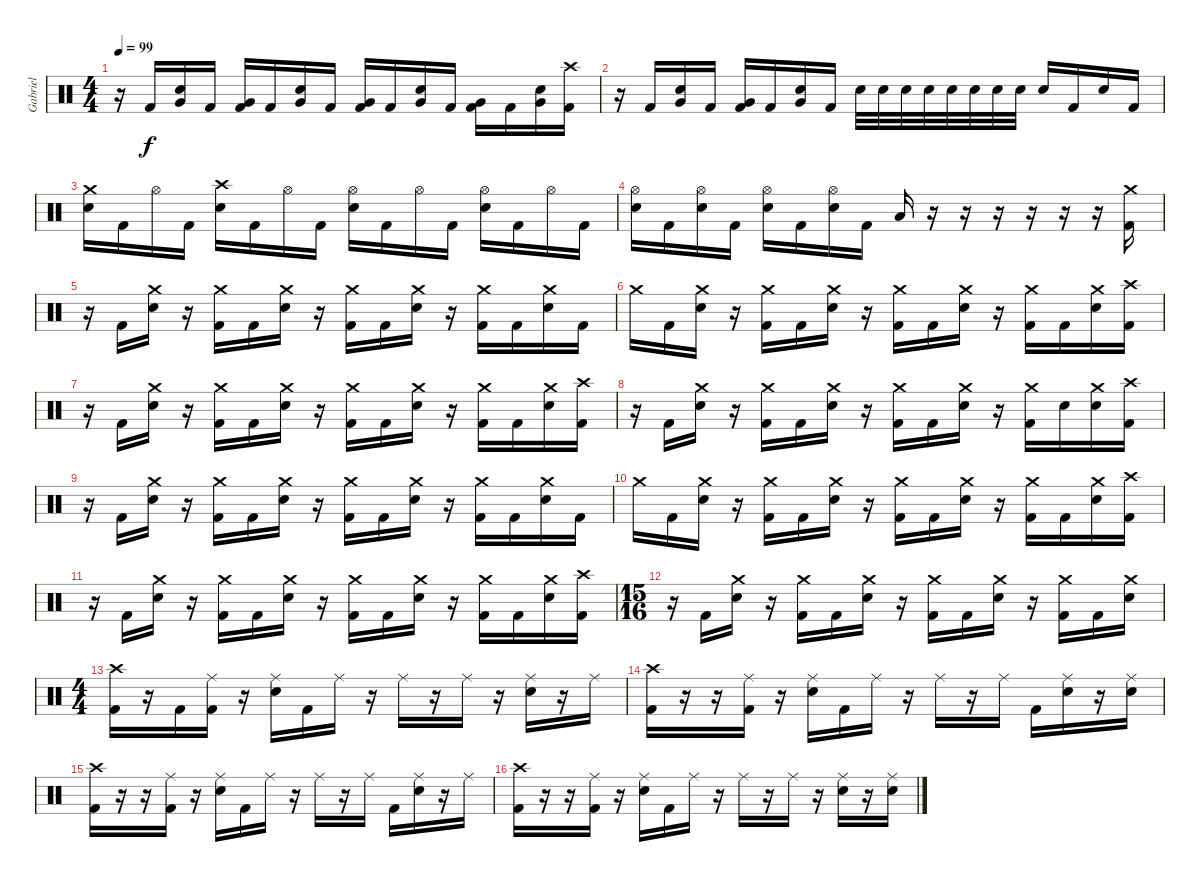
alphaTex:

\track ("Gabriel" "Gabriel") {instrument percussion}
\staff {score}
\articulation defaults
\ts (4 4)
\tempo 99
\clef neutral
\ks c
r.16{dy f} "Kick (hit) 2".16 ("Very Low Tom (hit)" "Electric Snare (hit)").16 "Kick (hit) 2".16 ("Very Low Tom (hit)" "Kick (hit) 2").16 "Kick (hit) 2".16 ("Very Low Tom (hit)" "Electric Snare (hit)").16 "Kick (hit) 2".16 ("Very Low Tom (hit)" "Kick (hit) 2").16 "Kick (hit) 2".16 ("Very Low Tom (hit)" "Electric Snare (hit)").16 "Kick (hit) 2".16 ("Very Low Tom (hit)" "Kick (hit) 2").16 "Kick (hit) 2".16 ("Very Low Tom (hit)" "Electric Snare (hit)").16 ("Crash high (hit)" "Kick (hit) 2").16 |
r.16 "Kick (hit) 2".16 ("Very Low Tom (hit)" "Electric Snare (hit)").16 "Kick (hit) 2".16 ("Very Low Tom (hit)" "Kick (hit) 2").16 "Kick (hit) 2".16 ("Very Low Tom (hit)" "Electric Snare (hit)").16 "Kick (hit) 2".16 "Electric Snare (hit)".32 "Electric Snare (hit)".32 "Electric Snare (hit)".32 "Electric Snare (hit)".32 "Electric Snare (hit)".32 "Electric Snare (hit)".32 "Electric Snare (hit)".32 "Electric Snare (hit)".32 "Electric Snare (hit)".16 "Kick (hit) 2".16 "Electric Snare (hit)".16 "Kick (hit) 2".16 |
("Crash medium (hit)" "Electric Snare (hit)").16 "Kick (hit) 2".16 "Hi-Hat (open)".16 "Kick (hit) 2".16 ("Crash high (hit)" "Electric Snare (hit)").16 "Kick (hit) 2".16 "Hi-Hat (open)".16 "Kick (hit) 2".16 ("Hi-Hat (open)" "Electric Snare (hit)").16 "Kick (hit) 2".16 "Hi-Hat (open)".16 "Kick (hit) 2".16 ("Hi-Hat (open)" "Electric Snare (hit)").16 "Kick (hit) 2".16 "Hi-Hat (open)".16 "Kick (hit) 2".16 |
("Hi-Hat (open)" "Electric Snare (hit)").16 "Kick (hit) 2".16 ("Hi-Hat (open)" "Electric Snare (hit)").16 "Kick (hit) 2".16 ("Hi-Hat (open)" "Electric Snare (hit)").16 "Kick (hit) 2".16 ("Hi-Hat (open)" "Electric Snare (hit)").16 "Kick (hit) 2".16 "Low Tom (hit)".16 r.16 r.16 r.16 r.16 r.16 r.16 ("Crash medium (hit)" "Kick (hit) 2").16 |
r.16 "Kick (hit) 2".16 ("Crash medium (hit)" "Electric Snare (hit)").16 r.16 ("Crash medium (hit)" "Kick (hit) 2").16 "Kick (hit) 2".16 ("Crash medium (hit)" "Electric Snare (hit)").16 r.16 ("Crash medium (hit)" "Kick (hit) 2").16 "Kick (hit) 2".16 ("Crash medium (hit)" "Electric Snare (hit)").16 r.16 ("Crash medium (hit)" "Kick (hit) 2").16 "Kick (hit) 2".16 ("Crash medium (hit)" "Electric Snare (hit)").16 "Kick (hit) 2".16 |
"Crash medium (hit)".16 "Kick (hit) 2".16 ("Crash medium (hit)" "Electric Snare (hit)").16 r.16 ("Crash medium (hit)" "Kick (hit) 2").16 "Kick (hit) 2".16 ("Crash medium (hit)" "Electric Snare (hit)").16 r.16 ("Crash medium (hit)" "Kick (hit) 2").16 "Kick (hit) 2".16 ("Crash medium (hit)" "Electric Snare (hit)").16 r.16 ("Crash medium (hit)" "Kick (hit) 2").16 "Kick (hit) 2".16 ("Crash medium (hit)" "Electric Snare (hit)").16 ("Crash high (hit)" "Kick (hit) 2").16 |
r.16 "Kick (hit) 2".16 ("Crash medium (hit)" "Electric Snare (hit)").16 r.16 ("Crash medium (hit)" "Kick (hit) 2").16 "Kick (hit) 2".16 ("Crash medium (hit)" "Electric Snare (hit)").16 r.16 ("Crash medium (hit)" "Kick (hit) 2").16 "Kick (hit) 2".16 ("Crash medium (hit)" "Electric Snare (hit)").16 r.16 ("Crash medium (hit)" "Kick (hit) 2").16 "Kick (hit) 2".16 ("Crash medium (hit)" "Electric Snare (hit)").16 ("Crash high (hit)" "Kick (hit) 2").16 |
r.16 "Kick (hit) 2".16 ("Crash medium (hit)" "Electric Snare (hit)").16 r.16 ("Crash medium (hit)" "Kick (hit) 2").16 "Kick (hit) 2".16 ("Crash medium (hit)" "Electric Snare (hit)").16 r.16 ("Crash medium (hit)" "Kick (hit) 2").16 "Kick (hit) 2".16 ("Crash medium (hit)" "Electric Snare (hit)").16 r.16 ("Crash medium (hit)" "Kick (hit) 2").16 "Electric Snare (hit)".16 ("Crash medium (hit)" "Electric Snare (hit)").16 ("Crash high (hit)" "Kick (hit) 2").16 |
r.16 "Kick (hit) 2".16 ("Crash medium (hit)" "Electric Snare (hit)").16 r.16 ("Crash medium (hit)" "Kick (hit) 2").16 "Kick (hit) 2".16 ("Crash medium (hit)" "Electric Snare (hit)").16 r.16 ("Crash medium (hit)" "Kick (hit) 2").16 "Kick (hit) 2".16 ("Crash medium (hit)" "Electric Snare (hit)").16 r.16 ("Crash medium (hit)" "Kick (hit) 2").16 "Kick (hit) 2".16 ("Crash medium (hit)" "Electric Snare (hit)").16 "Kick (hit) 2".16 |
"Crash medium (hit)".16 "Kick (hit) 2".16 ("Crash medium (hit)" "Electric Snare (hit)").16 r.16 ("Crash medium (hit)" "Kick (hit) 2").16 "Kick (hit) 2".16 ("Crash medium (hit)" "Electric Snare (hit)").16 r.16 ("Crash medium (hit)" "Kick (hit) 2").16 "Kick (hit) 2".16 ("Crash medium (hit)" "Electric Snare (hit)").16 r.16 ("Crash medium (hit)" "Kick (hit) 2").16 "Kick (hit) 2".16 ("Crash medium (hit)" "Electric Snare (hit)").16 ("Crash high (hit)" "Kick (hit) 2").16 |
r.16 "Kick (hit) 2".16 ("Crash medium (hit)" "Electric Snare (hit)").16 r.16 ("Crash medium (hit)" "Kick (hit) 2").16 "Kick (hit) 2".16 ("Crash medium (hit)" "Electric Snare (hit)").16 r.16 ("Crash medium (hit)" "Kick (hit) 2").16 "Kick (hit) 2".16 ("Crash medium (hit)" "Electric Snare (hit)").16 r.16 ("Crash medium (hit)" "Kick (hit) 2").16 "Kick (hit) 2".16 ("Crash medium (hit)" "Electric Snare (hit)").16 ("Crash high (hit)" "Kick (hit) 2").16 |
\ts (15 16)
r.16 "Kick (hit) 2".16 ("Crash medium (hit)" "Electric Snare (hit)").16 r.16 ("Crash medium (hit)" "Kick (hit) 2").16 "Kick (hit) 2".16 ("Crash medium (hit)" "Electric Snare (hit)").16 r.16 ("Crash medium (hit)" "Kick (hit) 2").16 "Kick (hit) 2".16 ("Crash medium (hit)" "Electric Snare (hit)").16 r.16 ("Crash medium (hit)" "Kick (hit) 2").16 "Kick (hit) 2".16 ("Crash medium (hit)" "Electric Snare (hit)").16 |
\ts (4 4)
("Crash high (hit)" "Kick (hit) 2").16 r.16 "Kick (hit) 2".16 ("Ride (middle)" "Kick (hit) 2").16 r.16 ("Ride (middle)" "Electric Snare (hit)").16 "Kick (hit) 2".16 "Ride (middle)".16 r.16 "Ride (middle)".16 r.16 "Ride (middle)".16 r.16 ("Ride (middle)" "Electric Snare (hit)").16 r.16 "Ride (middle)".16 |
("Crash high (hit)" "Kick (hit) 2").16 r.16 r.16 ("Ride (middle)" "Kick (hit) 2").16 r.16 ("Ride (middle)" "Electric Snare (hit)").16 "Kick (hit) 2".16 "Ride (middle)".16 r.16 "Ride (middle)".16 r.16 "Ride (middle)".16 "Kick (hit) 2".16 ("Ride (middle)" "Electric Snare (hit)").16 r.16 ("Ride (middle)" "Electric Snare (hit)").16 |
("Crash high (hit)" "Kick (hit) 2").16 r.16 r.16 ("Ride (middle)" "Kick (hit) 2").16 r.16 ("Ride (middle)" "Electric Snare (hit)").16 "Kick (hit) 2".16 "Ride (middle)".16 r.16 "Ride (middle)".16 r.16 "Ride (middle)".16 "Kick (hit) 2".16 ("Ride (middle)" "Electric Snare (hit)").16 r.16 "Ride (middle)".16 |
("Crash high (hit)" "Kick (hit) 2").16 r.16 r.16 ("Ride (middle)" "Kick (hit) 2").16 r.16 ("Ride (middle)" "Electric Snare (hit)").16 "Kick (hit) 2".16 "Ride (middle)".16 r.16 "Ride (middle)".16 r.16 "Ride (middle)".16 r.16 ("Ride (middle)" "Electric Snare (hit)").16 r.16 ("Ride (middle)" "Electric Snare (hit)").16
